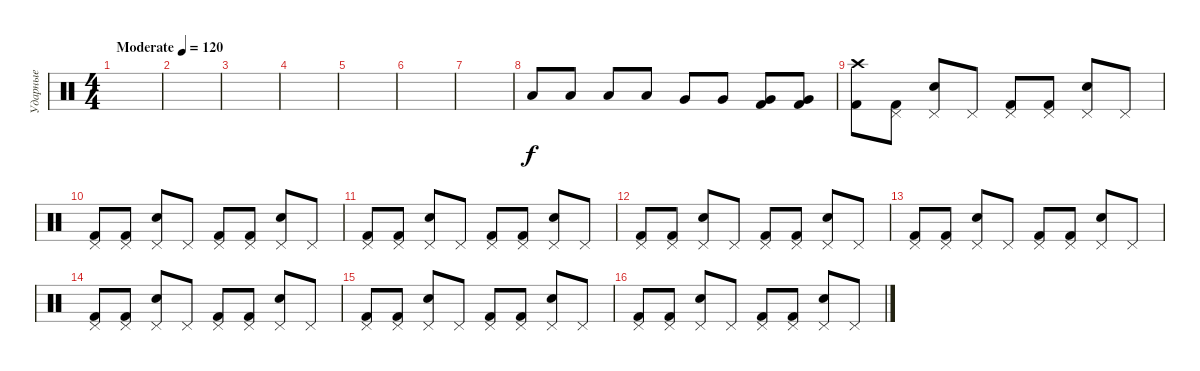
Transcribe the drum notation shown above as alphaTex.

\track ("Ударные" "Ударные") {instrument percussion}
\staff {score}
\articulation defaults
\ts (4 4)
\tempo (120 "Moderate")
\clef neutral
\ks c
|
|
|
|
|
|
|
"Low Tom (hit)".8 "Low Tom (hit)".8 "Low Tom (hit)".8 "Low Tom (hit)".8 "Very Low Tom (hit)".8 "Very Low Tom (hit)".8 ("Very Low Tom (hit)" "Kick (hit) 2").8 ("Very Low Tom (hit)" "Kick (hit) 2").8 |
("Crash high (hit)" "Kick (hit) 2").8 ("Pedal Hi-Hat (hit)" "Kick (hit) 2").8 ("Pedal Hi-Hat (hit)" "Snare (hit) 2").8 "Pedal Hi-Hat (hit)".8 ("Pedal Hi-Hat (hit)" "Kick (hit) 2").8 ("Pedal Hi-Hat (hit)" "Kick (hit) 2").8 ("Pedal Hi-Hat (hit)" "Snare (hit) 2").8 "Pedal Hi-Hat (hit)".8 |
("Pedal Hi-Hat (hit)" "Kick (hit) 2").8 ("Pedal Hi-Hat (hit)" "Kick (hit) 2").8 ("Pedal Hi-Hat (hit)" "Snare (hit) 2").8 "Pedal Hi-Hat (hit)".8 ("Pedal Hi-Hat (hit)" "Kick (hit) 2").8 ("Pedal Hi-Hat (hit)" "Kick (hit) 2").8 ("Pedal Hi-Hat (hit)" "Snare (hit) 2").8 "Pedal Hi-Hat (hit)".8 |
("Pedal Hi-Hat (hit)" "Kick (hit) 2").8 ("Pedal Hi-Hat (hit)" "Kick (hit) 2").8 ("Pedal Hi-Hat (hit)" "Snare (hit) 2").8 "Pedal Hi-Hat (hit)".8 ("Pedal Hi-Hat (hit)" "Kick (hit) 2").8 ("Pedal Hi-Hat (hit)" "Kick (hit) 2").8 ("Pedal Hi-Hat (hit)" "Snare (hit) 2").8 "Pedal Hi-Hat (hit)".8 |
("Pedal Hi-Hat (hit)" "Kick (hit) 2").8 ("Pedal Hi-Hat (hit)" "Kick (hit) 2").8 ("Pedal Hi-Hat (hit)" "Snare (hit) 2").8 "Pedal Hi-Hat (hit)".8 ("Pedal Hi-Hat (hit)" "Kick (hit) 2").8 ("Pedal Hi-Hat (hit)" "Kick (hit) 2").8 ("Pedal Hi-Hat (hit)" "Snare (hit) 2").8 "Pedal Hi-Hat (hit)".8 |
("Pedal Hi-Hat (hit)" "Kick (hit) 2").8 ("Pedal Hi-Hat (hit)" "Kick (hit) 2").8 ("Pedal Hi-Hat (hit)" "Snare (hit) 2").8 "Pedal Hi-Hat (hit)".8 ("Pedal Hi-Hat (hit)" "Kick (hit) 2").8 ("Pedal Hi-Hat (hit)" "Kick (hit) 2").8 ("Pedal Hi-Hat (hit)" "Snare (hit) 2").8 "Pedal Hi-Hat (hit)".8 |
("Pedal Hi-Hat (hit)" "Kick (hit) 2").8 ("Pedal Hi-Hat (hit)" "Kick (hit) 2").8 ("Pedal Hi-Hat (hit)" "Snare (hit) 2").8 "Pedal Hi-Hat (hit)".8 ("Pedal Hi-Hat (hit)" "Kick (hit) 2").8 ("Pedal Hi-Hat (hit)" "Kick (hit) 2").8 ("Pedal Hi-Hat (hit)" "Snare (hit) 2").8 "Pedal Hi-Hat (hit)".8 |
("Pedal Hi-Hat (hit)" "Kick (hit) 2").8 ("Pedal Hi-Hat (hit)" "Kick (hit) 2").8 ("Pedal Hi-Hat (hit)" "Snare (hit) 2").8 "Pedal Hi-Hat (hit)".8 ("Pedal Hi-Hat (hit)" "Kick (hit) 2").8 ("Pedal Hi-Hat (hit)" "Kick (hit) 2").8 ("Pedal Hi-Hat (hit)" "Snare (hit) 2").8 "Pedal Hi-Hat (hit)".8 |
("Pedal Hi-Hat (hit)" "Kick (hit) 2").8 ("Pedal Hi-Hat (hit)" "Kick (hit) 2").8 ("Pedal Hi-Hat (hit)" "Snare (hit) 2").8 "Pedal Hi-Hat (hit)".8 ("Pedal Hi-Hat (hit)" "Kick (hit) 2").8 ("Pedal Hi-Hat (hit)" "Kick (hit) 2").8 ("Pedal Hi-Hat (hit)" "Snare (hit) 2").8 "Pedal Hi-Hat (hit)".8
